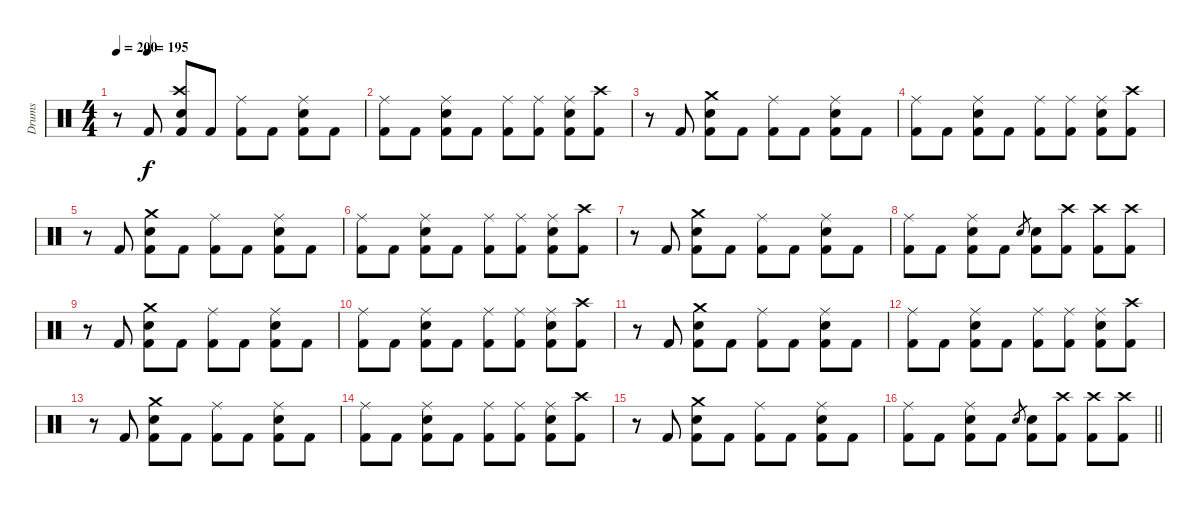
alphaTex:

\track ("Drums" "Drums") {instrument percussion}
\staff {score}
\articulation defaults
\ts (4 4)
\section ("" "")
\tempo 200
\tempo (195 0.125)
\clef neutral
\ks c
r.8{dy f} "Kick (hit) 2".8 ("Crash high (hit)" "Electric Snare (hit)" "Kick (hit) 2").8 "Kick (hit) 2".8 ("Ride (middle)" "Kick (hit) 2").8 "Kick (hit) 2".8 ("Ride (middle)" "Electric Snare (hit)" "Kick (hit) 2").8 "Kick (hit) 2".8 |
("Ride (middle)" "Kick (hit) 2").8 "Kick (hit) 2".8 ("Ride (middle)" "Electric Snare (hit)" "Kick (hit) 2").8 "Kick (hit) 2".8 ("Ride (middle)" "Kick (hit) 2").8 ("Ride (middle)" "Kick (hit) 2").8 ("Ride (middle)" "Electric Snare (hit)" "Kick (hit) 2").8 ("Crash high (hit)" "Kick (hit) 2").8 |
r.8 "Kick (hit) 2".8 ("Crash medium (hit)" "Electric Snare (hit)" "Kick (hit) 2").8 "Kick (hit) 2".8 ("Ride (middle)" "Kick (hit) 2").8 "Kick (hit) 2".8 ("Ride (middle)" "Electric Snare (hit)" "Kick (hit) 2").8 "Kick (hit) 2".8 |
("Ride (middle)" "Kick (hit) 2").8 "Kick (hit) 2".8 ("Ride (middle)" "Electric Snare (hit)" "Kick (hit) 2").8 "Kick (hit) 2".8 ("Ride (middle)" "Kick (hit) 2").8 ("Ride (middle)" "Kick (hit) 2").8 ("Ride (middle)" "Electric Snare (hit)" "Kick (hit) 2").8 ("Crash high (hit)" "Kick (hit) 2").8 |
r.8 "Kick (hit) 2".8 ("Crash medium (hit)" "Electric Snare (hit)" "Kick (hit) 2").8 "Kick (hit) 2".8 ("Ride (middle)" "Kick (hit) 2").8 "Kick (hit) 2".8 ("Ride (middle)" "Electric Snare (hit)" "Kick (hit) 2").8 "Kick (hit) 2".8 |
("Ride (middle)" "Kick (hit) 2").8 "Kick (hit) 2".8 ("Ride (middle)" "Electric Snare (hit)" "Kick (hit) 2").8 "Kick (hit) 2".8 ("Ride (middle)" "Kick (hit) 2").8 ("Ride (middle)" "Kick (hit) 2").8 ("Ride (middle)" "Electric Snare (hit)" "Kick (hit) 2").8 ("Crash high (hit)" "Kick (hit) 2").8 |
r.8 "Kick (hit) 2".8 ("Crash medium (hit)" "Electric Snare (hit)" "Kick (hit) 2").8 "Kick (hit) 2".8 ("Ride (middle)" "Kick (hit) 2").8 "Kick (hit) 2".8 ("Ride (middle)" "Electric Snare (hit)" "Kick (hit) 2").8 "Kick (hit) 2".8 |
("Ride (middle)" "Kick (hit) 2").8 "Kick (hit) 2".8 ("Ride (middle)" "Electric Snare (hit)" "Kick (hit) 2").8 "Kick (hit) 2".8 "Electric Snare (hit)".8{gr} ("Electric Snare (hit)" "Kick (hit) 2").8 ("Crash high (hit)" "Kick (hit) 2").8 ("Crash high (hit)" "Kick (hit) 2").8 ("Crash high (hit)" "Kick (hit) 2").8 |
r.8 "Kick (hit) 2".8 ("Crash medium (hit)" "Electric Snare (hit)" "Kick (hit) 2").8 "Kick (hit) 2".8 ("Ride (middle)" "Kick (hit) 2").8 "Kick (hit) 2".8 ("Ride (middle)" "Electric Snare (hit)" "Kick (hit) 2").8 "Kick (hit) 2".8 |
("Ride (middle)" "Kick (hit) 2").8 "Kick (hit) 2".8 ("Ride (middle)" "Electric Snare (hit)" "Kick (hit) 2").8 "Kick (hit) 2".8 ("Ride (middle)" "Kick (hit) 2").8 ("Ride (middle)" "Kick (hit) 2").8 ("Ride (middle)" "Electric Snare (hit)" "Kick (hit) 2").8 ("Crash high (hit)" "Kick (hit) 2").8 |
r.8 "Kick (hit) 2".8 ("Crash medium (hit)" "Electric Snare (hit)" "Kick (hit) 2").8 "Kick (hit) 2".8 ("Ride (middle)" "Kick (hit) 2").8 "Kick (hit) 2".8 ("Ride (middle)" "Electric Snare (hit)" "Kick (hit) 2").8 "Kick (hit) 2".8 |
("Ride (middle)" "Kick (hit) 2").8 "Kick (hit) 2".8 ("Ride (middle)" "Electric Snare (hit)" "Kick (hit) 2").8 "Kick (hit) 2".8 ("Ride (middle)" "Kick (hit) 2").8 ("Ride (middle)" "Kick (hit) 2").8 ("Ride (middle)" "Electric Snare (hit)" "Kick (hit) 2").8 ("Crash high (hit)" "Kick (hit) 2").8 |
r.8 "Kick (hit) 2".8 ("Crash medium (hit)" "Electric Snare (hit)" "Kick (hit) 2").8 "Kick (hit) 2".8 ("Ride (middle)" "Kick (hit) 2").8 "Kick (hit) 2".8 ("Ride (middle)" "Electric Snare (hit)" "Kick (hit) 2").8 "Kick (hit) 2".8 |
("Ride (middle)" "Kick (hit) 2").8 "Kick (hit) 2".8 ("Ride (middle)" "Electric Snare (hit)" "Kick (hit) 2").8 "Kick (hit) 2".8 ("Ride (middle)" "Kick (hit) 2").8 ("Ride (middle)" "Kick (hit) 2").8 ("Ride (middle)" "Electric Snare (hit)" "Kick (hit) 2").8 ("Crash high (hit)" "Kick (hit) 2").8 |
r.8 "Kick (hit) 2".8 ("Crash medium (hit)" "Electric Snare (hit)" "Kick (hit) 2").8 "Kick (hit) 2".8 ("Ride (middle)" "Kick (hit) 2").8 "Kick (hit) 2".8 ("Ride (middle)" "Electric Snare (hit)" "Kick (hit) 2").8 "Kick (hit) 2".8 |
\barLineRight lightlight
("Ride (middle)" "Kick (hit) 2").8 "Kick (hit) 2".8 ("Ride (middle)" "Electric Snare (hit)" "Kick (hit) 2").8 "Kick (hit) 2".8 "Electric Snare (hit)".8{gr} ("Electric Snare (hit)" "Kick (hit) 2").8 ("Crash high (hit)" "Kick (hit) 2").8 ("Crash high (hit)" "Kick (hit) 2").8 ("Crash high (hit)" "Kick (hit) 2").8
